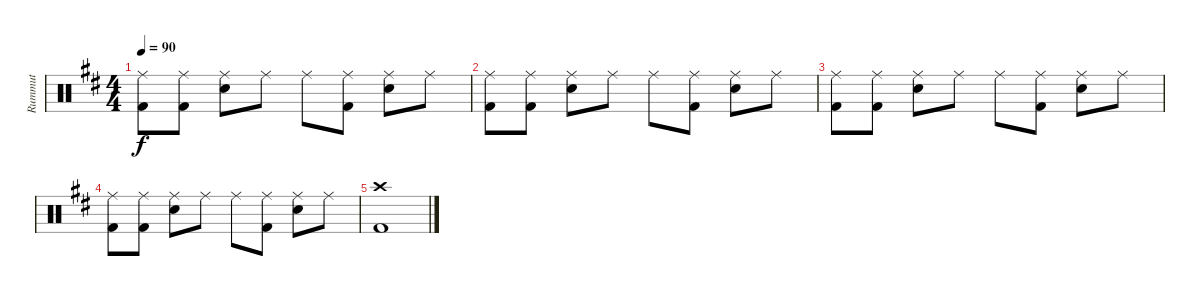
\track ("Rummut" "Rummut") {instrument percussion}
\staff {score}
\articulation defaults
\ts (4 4)
\tempo 90
\clef neutral
\ks d
("Ride (middle)" "Kick (hit) 2").8{dy f} ("Ride (middle)" "Kick (hit) 2").8 ("Ride (middle)" "Snare (hit) 2").8 "Ride (middle)".8 "Ride (middle)".8 ("Ride (middle)" "Kick (hit) 2").8 ("Ride (middle)" "Snare (hit) 2").8 "Ride (middle)".8 |
("Ride (middle)" "Kick (hit) 2").8 ("Ride (middle)" "Kick (hit) 2").8 ("Ride (middle)" "Snare (hit) 2").8 "Ride (middle)".8 "Ride (middle)".8 ("Ride (middle)" "Kick (hit) 2").8 ("Ride (middle)" "Snare (hit) 2").8 "Ride (middle)".8 |
("Ride (middle)" "Kick (hit) 2").8 ("Ride (middle)" "Kick (hit) 2").8 ("Ride (middle)" "Snare (hit) 2").8 "Ride (middle)".8 "Ride (middle)".8 ("Ride (middle)" "Kick (hit) 2").8 ("Ride (middle)" "Snare (hit) 2").8 "Ride (middle)".8 |
("Ride (middle)" "Kick (hit) 2").8 ("Ride (middle)" "Kick (hit) 2").8 ("Ride (middle)" "Snare (hit) 2").8 "Ride (middle)".8 "Ride (middle)".8 ("Ride (middle)" "Kick (hit) 2").8 ("Ride (middle)" "Snare (hit) 2").8 "Ride (middle)".8 |
("Crash high (hit)" "Kick (hit) 2").1
